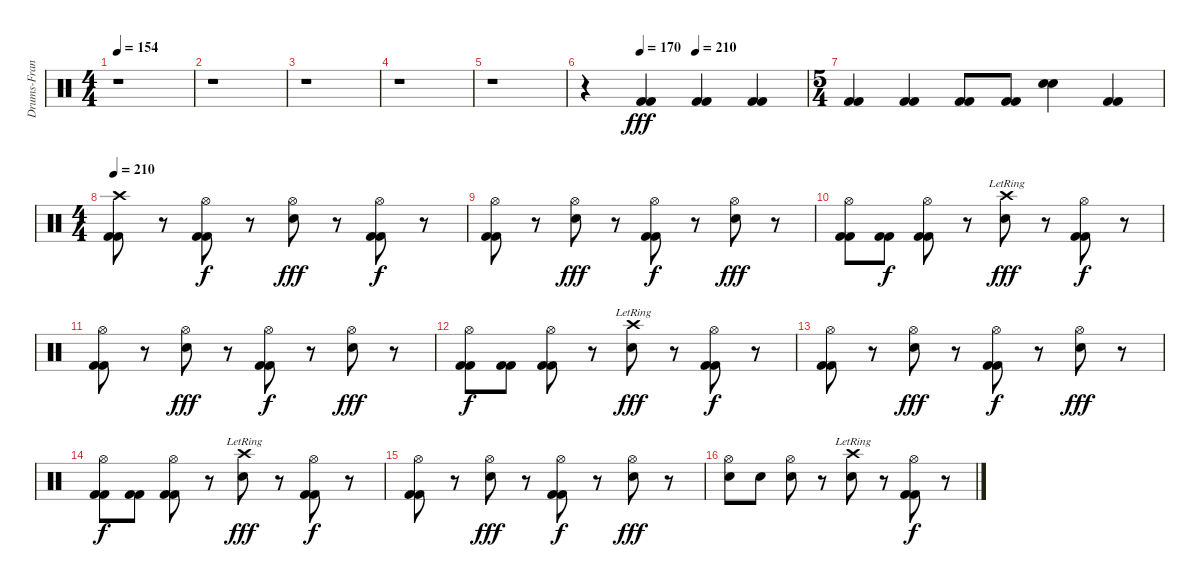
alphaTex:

\track ("Drums-Francis Mark" "Drums-Fran") {instrument percussion}
\staff {score}
\articulation defaults
\ts (4 4)
\tempo 154
\clef neutral
\ks c
r.1{dy fff} |
r.1 |
r.1 |
r.1 |
r.1 |
\tempo (170 0.25)
\tempo (210 0.5)
r.4 ("Kick (hit) 2" "Kick (hit) 2").4 ("Kick (hit) 2" "Kick (hit) 2").4 ("Kick (hit) 2" "Kick (hit) 2").4 |
\ts (5 4)
("Kick (hit) 2" "Kick (hit) 2").4 ("Kick (hit) 2" "Kick (hit) 2").4 ("Kick (hit) 2" "Kick (hit) 2").8 ("Kick (hit) 2" "Kick (hit) 2").8 ("Electric Snare (hit)" "Electric Snare (hit)").4 ("Kick (hit) 2" "Kick (hit) 2").4 |
\ts (4 4)
\tempo 210
("Crash high (hit)" "Kick (hit) 2" "Kick (hit) 2").8 r.8 ("Hi-Hat (open)" "Kick (hit) 2" "Kick (hit) 2").8{dy f} r.8 ("Hi-Hat (open)" "Electric Snare (hit)").8{dy fff} r.8 ("Hi-Hat (open)" "Kick (hit) 2" "Kick (hit) 2").8{dy f} r.8 |
("Hi-Hat (open)" "Kick (hit) 2" "Kick (hit) 2").8 r.8 ("Hi-Hat (open)" "Electric Snare (hit)").8{dy fff} r.8 ("Hi-Hat (open)" "Kick (hit) 2" "Kick (hit) 2").8{dy f} r.8 ("Hi-Hat (open)" "Electric Snare (hit)").8{dy fff} r.8 |
("Hi-Hat (open)" "Kick (hit) 2" "Kick (hit) 2").8 ("Kick (hit) 2" "Kick (hit) 2").8{dy f} ("Hi-Hat (open)" "Kick (hit) 2" "Kick (hit) 2").8 r.8 ("Crash high (hit)"{lr} "Electric Snare (hit)").8{dy fff} r.8 ("Hi-Hat (open)" "Kick (hit) 2" "Kick (hit) 2").8{dy f} r.8 |
("Hi-Hat (open)" "Kick (hit) 2" "Kick (hit) 2").8 r.8 ("Hi-Hat (open)" "Electric Snare (hit)").8{dy fff} r.8 ("Hi-Hat (open)" "Kick (hit) 2" "Kick (hit) 2").8{dy f} r.8 ("Hi-Hat (open)" "Electric Snare (hit)").8{dy fff} r.8 |
("Hi-Hat (open)" "Kick (hit) 2" "Kick (hit) 2").8{dy f} ("Kick (hit) 2" "Kick (hit) 2").8 ("Hi-Hat (open)" "Kick (hit) 2" "Kick (hit) 2").8 r.8 ("Crash high (hit)"{lr} "Electric Snare (hit)").8{dy fff} r.8 ("Hi-Hat (open)" "Kick (hit) 2" "Kick (hit) 2").8{dy f} r.8 |
("Hi-Hat (open)" "Kick (hit) 2" "Kick (hit) 2").8 r.8 ("Hi-Hat (open)" "Electric Snare (hit)").8{dy fff} r.8 ("Hi-Hat (open)" "Kick (hit) 2" "Kick (hit) 2").8{dy f} r.8 ("Hi-Hat (open)" "Electric Snare (hit)").8{dy fff} r.8 |
("Hi-Hat (open)" "Kick (hit) 2" "Kick (hit) 2").8{dy f} ("Kick (hit) 2" "Kick (hit) 2").8 ("Hi-Hat (open)" "Kick (hit) 2" "Kick (hit) 2").8 r.8 ("Crash high (hit)"{lr} "Electric Snare (hit)").8{dy fff} r.8 ("Hi-Hat (open)" "Kick (hit) 2" "Kick (hit) 2").8{dy f} r.8 |
("Hi-Hat (open)" "Kick (hit) 2" "Kick (hit) 2").8 r.8 ("Hi-Hat (open)" "Electric Snare (hit)").8{dy fff} r.8 ("Hi-Hat (open)" "Kick (hit) 2" "Kick (hit) 2").8{dy f} r.8 ("Hi-Hat (open)" "Electric Snare (hit)").8{dy fff} r.8 |
("Hi-Hat (open)" "Electric Snare (hit)").8 "Electric Snare (hit)".8 ("Hi-Hat (open)" "Electric Snare (hit)").8 r.8 ("Crash high (hit)"{lr} "Electric Snare (hit)").8 r.8 ("Hi-Hat (open)" "Kick (hit) 2" "Kick (hit) 2").8{dy f} r.8
